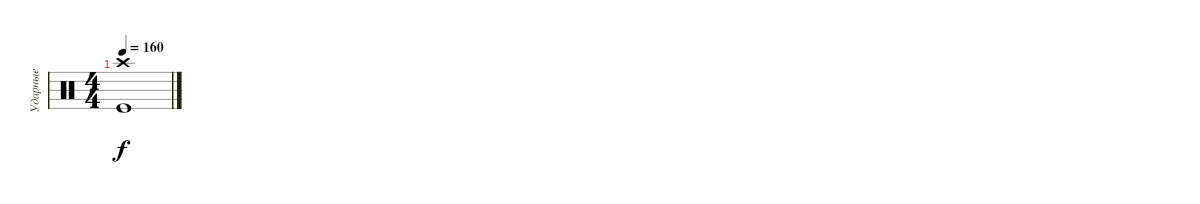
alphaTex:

\track ("Ударные" "Ударные") {instrument percussion}
\staff {score}
\articulation defaults
\ts (4 4)
\tempo 160
\clef neutral
\ks c
("Crash high (hit)" "Kick (hit)").1{dy f}
